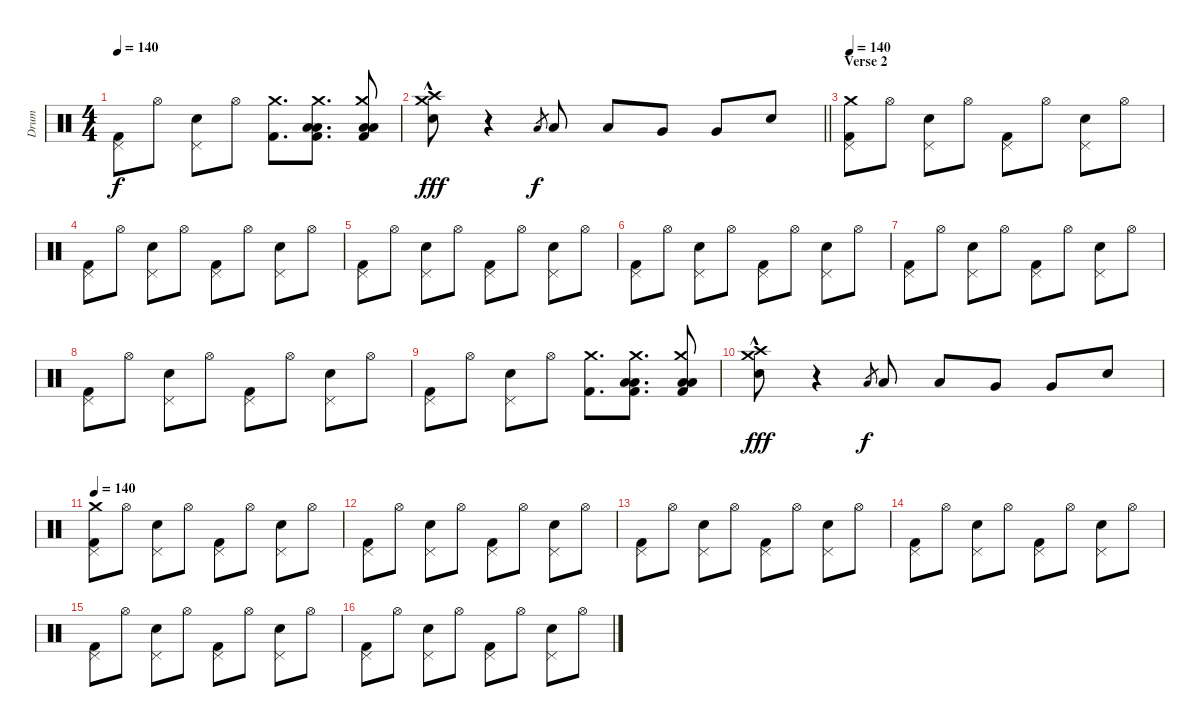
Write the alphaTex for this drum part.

\track ("Drum" "Drum") {instrument percussion}
\staff {score}
\articulation defaults
\ts (4 4)
\tempo 140
\clef neutral
\ks c
("Pedal Hi-Hat (hit)" "Kick (hit) 2").8{dy f} "Hi-Hat (open)".8 ("Pedal Hi-Hat (hit)" "Electric Snare (hit)").8 "Hi-Hat (open)".8 ("Crash medium (hit)" "Kick (hit) 2").8{d} ("Crash medium (hit)" "Low Tom (hit)" "Low Tom (hit)" "Kick (hit) 2").8{d} ("Crash medium (hit)" "Low Tom (hit)" "Low Tom (hit)" "Kick (hit) 2").8 |
\barLineRight lightlight
("Crash medium (hit)" "Crash high (hit)" "Electric Snare (hit)"{hac}).8{dy fff} r.4 "Low Tom (hit)".8{gr dy f} "Low Tom (hit)".8 "Low Tom (hit)".8 "Very Low Tom (hit)".8 "Very Low Tom (hit)".8 "Electric Snare (hit)".8 |
\section ("" "Verse 2")
\tempo 140
("Crash medium (hit)" "Pedal Hi-Hat (hit)" "Kick (hit) 2").8 "Hi-Hat (open)".8 ("Pedal Hi-Hat (hit)" "Electric Snare (hit)").8 "Hi-Hat (open)".8 ("Pedal Hi-Hat (hit)" "Kick (hit) 2").8 "Hi-Hat (open)".8 ("Pedal Hi-Hat (hit)" "Electric Snare (hit)").8 "Hi-Hat (open)".8 |
("Pedal Hi-Hat (hit)" "Kick (hit) 2").8 "Hi-Hat (open)".8 ("Pedal Hi-Hat (hit)" "Electric Snare (hit)").8 "Hi-Hat (open)".8 ("Pedal Hi-Hat (hit)" "Kick (hit) 2").8 "Hi-Hat (open)".8 ("Pedal Hi-Hat (hit)" "Electric Snare (hit)").8 "Hi-Hat (open)".8 |
("Pedal Hi-Hat (hit)" "Kick (hit) 2").8 "Hi-Hat (open)".8 ("Pedal Hi-Hat (hit)" "Electric Snare (hit)").8 "Hi-Hat (open)".8 ("Pedal Hi-Hat (hit)" "Kick (hit) 2").8 "Hi-Hat (open)".8 ("Pedal Hi-Hat (hit)" "Electric Snare (hit)").8 "Hi-Hat (open)".8 |
("Pedal Hi-Hat (hit)" "Kick (hit) 2").8 "Hi-Hat (open)".8 ("Pedal Hi-Hat (hit)" "Electric Snare (hit)").8 "Hi-Hat (open)".8 ("Pedal Hi-Hat (hit)" "Kick (hit) 2").8 "Hi-Hat (open)".8 ("Pedal Hi-Hat (hit)" "Electric Snare (hit)").8 "Hi-Hat (open)".8 |
("Pedal Hi-Hat (hit)" "Kick (hit) 2").8 "Hi-Hat (open)".8 ("Pedal Hi-Hat (hit)" "Electric Snare (hit)").8 "Hi-Hat (open)".8 ("Pedal Hi-Hat (hit)" "Kick (hit) 2").8 "Hi-Hat (open)".8 ("Pedal Hi-Hat (hit)" "Electric Snare (hit)").8 "Hi-Hat (open)".8 |
("Pedal Hi-Hat (hit)" "Kick (hit) 2").8 "Hi-Hat (open)".8 ("Pedal Hi-Hat (hit)" "Electric Snare (hit)").8 "Hi-Hat (open)".8 ("Pedal Hi-Hat (hit)" "Kick (hit) 2").8 "Hi-Hat (open)".8 ("Pedal Hi-Hat (hit)" "Electric Snare (hit)").8 "Hi-Hat (open)".8 |
("Pedal Hi-Hat (hit)" "Kick (hit) 2").8 "Hi-Hat (open)".8 ("Pedal Hi-Hat (hit)" "Electric Snare (hit)").8 "Hi-Hat (open)".8 ("Crash medium (hit)" "Kick (hit) 2").8{d} ("Crash medium (hit)" "Low Tom (hit)" "Low Tom (hit)" "Kick (hit) 2").8{d} ("Crash medium (hit)" "Low Tom (hit)" "Low Tom (hit)" "Kick (hit) 2").8 |
("Crash medium (hit)" "Crash high (hit)" "Electric Snare (hit)"{hac}).8{dy fff} r.4 "Low Tom (hit)".8{gr dy f} "Low Tom (hit)".8 "Low Tom (hit)".8 "Very Low Tom (hit)".8 "Very Low Tom (hit)".8 "Electric Snare (hit)".8 |
\tempo 140
("Crash medium (hit)" "Pedal Hi-Hat (hit)" "Kick (hit) 2").8 "Hi-Hat (open)".8 ("Pedal Hi-Hat (hit)" "Electric Snare (hit)").8 "Hi-Hat (open)".8 ("Pedal Hi-Hat (hit)" "Kick (hit) 2").8 "Hi-Hat (open)".8 ("Pedal Hi-Hat (hit)" "Electric Snare (hit)").8 "Hi-Hat (open)".8 |
("Pedal Hi-Hat (hit)" "Kick (hit) 2").8 "Hi-Hat (open)".8 ("Pedal Hi-Hat (hit)" "Electric Snare (hit)").8 "Hi-Hat (open)".8 ("Pedal Hi-Hat (hit)" "Kick (hit) 2").8 "Hi-Hat (open)".8 ("Pedal Hi-Hat (hit)" "Electric Snare (hit)").8 "Hi-Hat (open)".8 |
("Pedal Hi-Hat (hit)" "Kick (hit) 2").8 "Hi-Hat (open)".8 ("Pedal Hi-Hat (hit)" "Electric Snare (hit)").8 "Hi-Hat (open)".8 ("Pedal Hi-Hat (hit)" "Kick (hit) 2").8 "Hi-Hat (open)".8 ("Pedal Hi-Hat (hit)" "Electric Snare (hit)").8 "Hi-Hat (open)".8 |
("Pedal Hi-Hat (hit)" "Kick (hit) 2").8 "Hi-Hat (open)".8 ("Pedal Hi-Hat (hit)" "Electric Snare (hit)").8 "Hi-Hat (open)".8 ("Pedal Hi-Hat (hit)" "Kick (hit) 2").8 "Hi-Hat (open)".8 ("Pedal Hi-Hat (hit)" "Electric Snare (hit)").8 "Hi-Hat (open)".8 |
("Pedal Hi-Hat (hit)" "Kick (hit) 2").8 "Hi-Hat (open)".8 ("Pedal Hi-Hat (hit)" "Electric Snare (hit)").8 "Hi-Hat (open)".8 ("Pedal Hi-Hat (hit)" "Kick (hit) 2").8 "Hi-Hat (open)".8 ("Pedal Hi-Hat (hit)" "Electric Snare (hit)").8 "Hi-Hat (open)".8 |
("Pedal Hi-Hat (hit)" "Kick (hit) 2").8 "Hi-Hat (open)".8 ("Pedal Hi-Hat (hit)" "Electric Snare (hit)").8 "Hi-Hat (open)".8 ("Pedal Hi-Hat (hit)" "Kick (hit) 2").8 "Hi-Hat (open)".8 ("Pedal Hi-Hat (hit)" "Electric Snare (hit)").8 "Hi-Hat (open)".8
